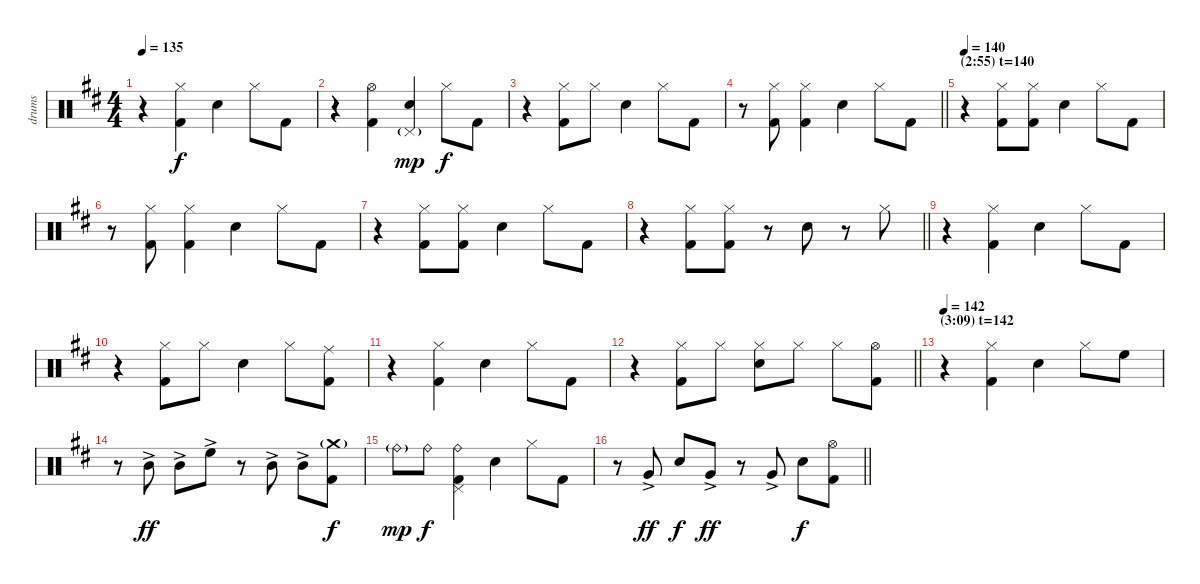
\track ("drums" "drums") {instrument percussion}
\staff {score}
\articulation defaults
\ts (4 4)
\tempo 135
\clef neutral
\ks d
r.4{dy f} ("Hi-Hat (closed)" "Kick (hit) 2").4 "Electric Snare (hit)".4 "Hi-Hat (closed)".8 "Kick (hit) 2".8 |
r.4 ("Hi-Hat (open)" "Kick (hit) 2").4 ("Pedal Hi-Hat (hit)"{g} "Electric Snare (hit)").4{dy mp} "Hi-Hat (closed)".8{dy f} "Kick (hit) 2".8 |
r.4 ("Hi-Hat (closed)" "Kick (hit) 2").8 "Hi-Hat (closed)".8 "Electric Snare (hit)".4 "Hi-Hat (closed)".8 "Kick (hit) 2".8 |
\barLineRight lightlight
r.8 ("Hi-Hat (closed)" "Kick (hit) 2").8 ("Hi-Hat (closed)" "Kick (hit) 2").4 "Electric Snare (hit)".4 "Hi-Hat (closed)".8 "Kick (hit) 2".8 |
\section ("" "(2:55) t=140")
\tempo 140
r.4 ("Hi-Hat (closed)" "Kick (hit) 2").8 ("Hi-Hat (closed)" "Kick (hit) 2").8 "Electric Snare (hit)".4 "Hi-Hat (closed)".8 "Kick (hit) 2".8 |
r.8 ("Hi-Hat (closed)" "Kick (hit) 2").8 ("Hi-Hat (closed)" "Kick (hit) 2").4 "Electric Snare (hit)".4 "Hi-Hat (closed)".8 "Kick (hit) 2".8 |
r.4 ("Hi-Hat (closed)" "Kick (hit) 2").8 ("Hi-Hat (closed)" "Kick (hit) 2").8 "Electric Snare (hit)".4 "Hi-Hat (closed)".8 "Kick (hit) 2".8 |
\barLineRight lightlight
r.4 ("Hi-Hat (closed)" "Kick (hit) 2").8 ("Hi-Hat (closed)" "Kick (hit) 2").8 r.8 "Electric Snare (hit)".8 r.8 "Hi-Hat (closed)".8 |
r.4 ("Hi-Hat (closed)" "Kick (hit) 2").4 "Electric Snare (hit)".4 "Hi-Hat (closed)".8 "Kick (hit) 2".8 |
r.4 ("Hi-Hat (closed)" "Kick (hit) 2").8 "Hi-Hat (closed)".8 "Electric Snare (hit)".4 "Hi-Hat (closed)".8 ("Ride (middle)" "Kick (hit) 2").8 |
r.4 ("Hi-Hat (closed)" "Kick (hit) 2").4 "Electric Snare (hit)".4 "Hi-Hat (closed)".8 "Kick (hit) 2".8 |
\barLineRight lightlight
r.4 ("Hi-Hat (closed)" "Kick (hit) 2").8 "Hi-Hat (closed)".8 ("Hi-Hat (closed)" "Electric Snare (hit)").8 "Hi-Hat (closed)".8 "Hi-Hat (closed)".8 ("Hi-Hat (open)" "Kick (hit) 2").8 |
\section ("" "(3:09) t=142")
\tempo 142
r.4 ("Hi-Hat (closed)" "Kick (hit) 2").4 "Electric Snare (hit)".4 "Hi-Hat (closed)".8 "High Floor Tom (hit)".8 |
r.8 "Mid Tom (hit)"{ac}.8{dy ff} "Mid Tom (hit)"{ac}.8 "High Floor Tom (hit)"{ac}.8 r.8 "Mid Tom (hit)"{ac}.8 "Mid Tom (hit)"{ac}.8 ("Crash medium (hit)"{g} "Kick (hit) 2").8{dy f} |
"Ride (bell)"{g}.8{dy mp} "Ride (bell)".8{dy f} ("Ride (bell)" "Pedal Hi-Hat (hit)" "Kick (hit) 2").4 "Electric Snare (hit)".4 "Hi-Hat (closed)".8 "Kick (hit) 2".8 |
\barLineRight lightlight
r.8 "Very Low Tom (hit)"{ac}.8{dy ff} "Electric Snare (hit)".8{dy f} "Very Low Tom (hit)"{ac}.8{dy ff} r.8 "Very Low Tom (hit)"{ac}.8 "Electric Snare (hit)".8{dy f} ("Hi-Hat (open)" "Kick (hit) 2").8
